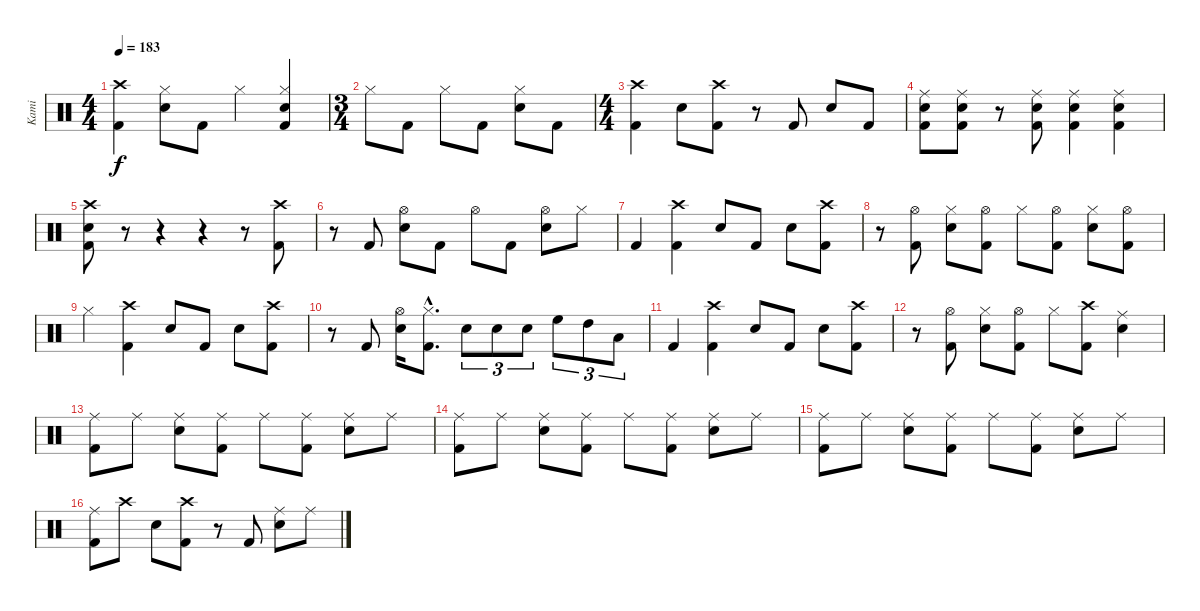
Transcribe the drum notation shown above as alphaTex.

\track ("Kami" "Kami") {instrument percussion}
\staff {score}
\articulation defaults
\ts (4 4)
\tempo 183
\clef neutral
\ks c
("Crash high (hit)" "Kick (hit) 2").4{dy f} ("Hi-Hat (closed)" "Electric Snare (hit)").8 "Kick (hit) 2".8 "Hi-Hat (closed)".4 ("Hi-Hat (closed)" "Electric Snare (hit)" "Kick (hit) 2").4 |
\ts (3 4)
"Hi-Hat (closed)".8 "Kick (hit) 2".8 "Hi-Hat (closed)".8 "Kick (hit) 2".8 ("Hi-Hat (closed)" "Electric Snare (hit)").8 "Kick (hit) 2".8 |
\ts (4 4)
("Crash high (hit)" "Kick (hit) 2").4 "Electric Snare (hit)".8 ("Crash high (hit)" "Kick (hit) 2").8 r.8 "Kick (hit) 2".8 "Electric Snare (hit)".8 "Kick (hit) 2".8 |
("Ride (middle)" "Electric Snare (hit)" "Kick (hit) 2").8 ("Ride (middle)" "Electric Snare (hit)" "Kick (hit) 2").8 r.8 ("Ride (middle)" "Electric Snare (hit)" "Kick (hit) 2").8 ("Ride (middle)" "Electric Snare (hit)" "Kick (hit) 2").4 ("Ride (middle)" "Electric Snare (hit)" "Kick (hit) 2").4 |
("Crash high (hit)" "Electric Snare (hit)" "Kick (hit) 2").8 r.8 r.4 r.4 r.8 ("Crash high (hit)" "Kick (hit) 2").8 |
r.8 "Kick (hit) 2".8 ("Hi-Hat (open)" "Electric Snare (hit)").8 "Kick (hit) 2".8 "Hi-Hat (open)".8 "Kick (hit) 2".8 ("Electric Snare (hit)" "Hi-Hat (open)").8 "Hi-Hat (closed)".8 |
"Kick (hit) 2".4 ("Crash high (hit)" "Kick (hit) 2").4 "Electric Snare (hit)".8 "Kick (hit) 2".8 "Electric Snare (hit)".8 ("Crash high (hit)" "Kick (hit) 2").8 |
r.8 ("Hi-Hat (open)" "Kick (hit) 2").8 ("Hi-Hat (closed)" "Electric Snare (hit)").8 ("Hi-Hat (open)" "Kick (hit) 2").8 "Hi-Hat (closed)".8 ("Hi-Hat (open)" "Kick (hit) 2").8 ("Hi-Hat (closed)" "Electric Snare (hit)").8 ("Hi-Hat (open)" "Kick (hit) 2").8 |
"Hi-Hat (closed)".4 ("Crash high (hit)" "Kick (hit) 2").4 "Electric Snare (hit)".8 "Kick (hit) 2".8 "Electric Snare (hit)".8 ("Crash high (hit)" "Kick (hit) 2").8 |
r.8 "Kick (hit) 2".8 ("Hi-Hat (open)" "Electric Snare (hit)").16 ("Hi-Hat (closed)"{hac} "Kick (hit) 2"{hac}).8{d} "Electric Snare (hit)".8{tu (3 2)} "Electric Snare (hit)".8{tu (3 2)} "Electric Snare (hit)".8{tu (3 2)} "High Floor Tom (hit)".8{tu (3 2)} "High Tom (hit)".8{tu (3 2)} "Low Tom (hit)".8{tu (3 2)} |
"Kick (hit) 2".4 ("Crash high (hit)" "Kick (hit) 2").4 "Electric Snare (hit)".8 "Kick (hit) 2".8 "Electric Snare (hit)".8 ("Crash high (hit)" "Kick (hit) 2").8 |
r.8 ("Hi-Hat (open)" "Kick (hit) 2").8 ("Hi-Hat (closed)" "Electric Snare (hit)").8 ("Hi-Hat (open)" "Kick (hit) 2").8 "Hi-Hat (closed)".8 ("Crash high (hit)" "Kick (hit) 2").8 ("Ride (middle)" "Electric Snare (hit)").4 |
("Ride (middle)" "Kick (hit) 2").8 "Ride (middle)".8 ("Ride (middle)" "Electric Snare (hit)").8 ("Ride (middle)" "Kick (hit) 2").8 "Ride (middle)".8 ("Ride (middle)" "Kick (hit) 2").8 ("Ride (middle)" "Electric Snare (hit)").8 "Ride (middle)".8 |
("Ride (middle)" "Kick (hit) 2").8 "Ride (middle)".8 ("Ride (middle)" "Electric Snare (hit)").8 ("Ride (middle)" "Kick (hit) 2").8 "Ride (middle)".8 ("Ride (middle)" "Kick (hit) 2").8 ("Ride (middle)" "Electric Snare (hit)").8 "Ride (middle)".8 |
("Ride (middle)" "Kick (hit) 2").8 "Ride (middle)".8 ("Ride (middle)" "Electric Snare (hit)").8 ("Ride (middle)" "Kick (hit) 2").8 "Ride (middle)".8 ("Ride (middle)" "Kick (hit) 2").8 ("Ride (middle)" "Electric Snare (hit)").8 "Ride (middle)".8 |
("Ride (middle)" "Kick (hit) 2").8 "Crash high (hit)".8 "Electric Snare (hit)".8 ("Crash high (hit)" "Kick (hit) 2").8 r.8 "Kick (hit) 2".8 ("Ride (middle)" "Electric Snare (hit)").8 "Ride (middle)".8
